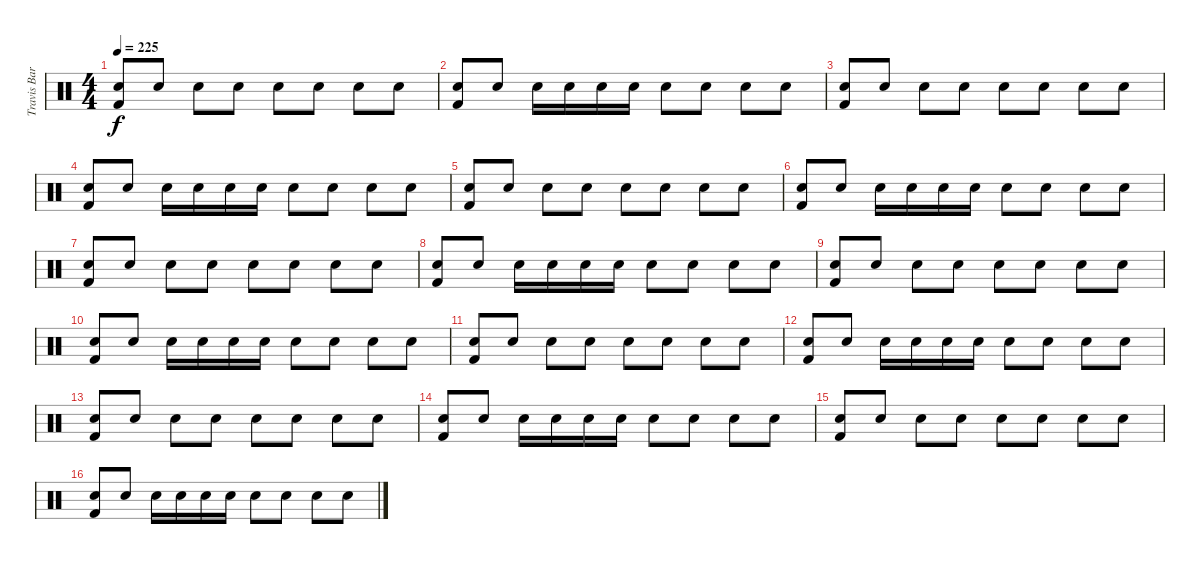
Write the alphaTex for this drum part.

\track ("Travis Barker (Drums)" "Travis Bar") {instrument percussion}
\staff {score}
\articulation defaults
\ts (4 4)
\tempo 225
\clef neutral
\ks c
("Snare (hit) 2" "Kick (hit) 2").8{dy f} "Snare (hit) 2".8 "Snare (hit) 2".8 "Electric Snare (hit)".8 "Snare (hit) 2".8 "Snare (hit) 2".8 "Electric Snare (hit)".8 "Snare (hit) 2".8 |
("Snare (hit) 2" "Kick (hit) 2").8 "Snare (hit) 2".8 "Snare (hit) 2".16 "Snare (hit) 2".16 "Snare (hit) 2".16 "Snare (hit) 2".16 "Electric Snare (hit)".8 "Electric Snare (hit)".8 "Snare (hit) 2".8 "Snare (hit) 2".8 |
("Snare (hit) 2" "Kick (hit) 2").8 "Snare (hit) 2".8 "Snare (hit) 2".8 "Electric Snare (hit)".8 "Snare (hit) 2".8 "Snare (hit) 2".8 "Electric Snare (hit)".8 "Snare (hit) 2".8 |
("Snare (hit) 2" "Kick (hit) 2").8 "Snare (hit) 2".8 "Snare (hit) 2".16 "Snare (hit) 2".16 "Snare (hit) 2".16 "Snare (hit) 2".16 "Electric Snare (hit)".8 "Electric Snare (hit)".8 "Snare (hit) 2".8 "Snare (hit) 2".8 |
("Snare (hit) 2" "Kick (hit) 2").8 "Snare (hit) 2".8 "Snare (hit) 2".8 "Electric Snare (hit)".8 "Snare (hit) 2".8 "Snare (hit) 2".8 "Electric Snare (hit)".8 "Snare (hit) 2".8 |
("Snare (hit) 2" "Kick (hit) 2").8 "Snare (hit) 2".8 "Snare (hit) 2".16 "Snare (hit) 2".16 "Snare (hit) 2".16 "Snare (hit) 2".16 "Electric Snare (hit)".8 "Electric Snare (hit)".8 "Snare (hit) 2".8 "Snare (hit) 2".8 |
("Snare (hit) 2" "Kick (hit) 2").8 "Snare (hit) 2".8 "Snare (hit) 2".8 "Electric Snare (hit)".8 "Snare (hit) 2".8 "Snare (hit) 2".8 "Electric Snare (hit)".8 "Snare (hit) 2".8 |
("Snare (hit) 2" "Kick (hit) 2").8 "Snare (hit) 2".8 "Snare (hit) 2".16 "Snare (hit) 2".16 "Snare (hit) 2".16 "Snare (hit) 2".16 "Electric Snare (hit)".8 "Electric Snare (hit)".8 "Snare (hit) 2".8 "Snare (hit) 2".8 |
("Snare (hit) 2" "Kick (hit) 2").8 "Snare (hit) 2".8 "Snare (hit) 2".8 "Electric Snare (hit)".8 "Snare (hit) 2".8 "Snare (hit) 2".8 "Electric Snare (hit)".8 "Snare (hit) 2".8 |
("Snare (hit) 2" "Kick (hit) 2").8 "Snare (hit) 2".8 "Snare (hit) 2".16 "Snare (hit) 2".16 "Snare (hit) 2".16 "Snare (hit) 2".16 "Electric Snare (hit)".8 "Electric Snare (hit)".8 "Snare (hit) 2".8 "Snare (hit) 2".8 |
("Snare (hit) 2" "Kick (hit) 2").8 "Snare (hit) 2".8 "Snare (hit) 2".8 "Electric Snare (hit)".8 "Snare (hit) 2".8 "Snare (hit) 2".8 "Electric Snare (hit)".8 "Snare (hit) 2".8 |
("Snare (hit) 2" "Kick (hit) 2").8 "Snare (hit) 2".8 "Snare (hit) 2".16 "Snare (hit) 2".16 "Snare (hit) 2".16 "Snare (hit) 2".16 "Electric Snare (hit)".8 "Electric Snare (hit)".8 "Snare (hit) 2".8 "Snare (hit) 2".8 |
("Snare (hit) 2" "Kick (hit) 2").8 "Snare (hit) 2".8 "Snare (hit) 2".8 "Electric Snare (hit)".8 "Snare (hit) 2".8 "Snare (hit) 2".8 "Electric Snare (hit)".8 "Snare (hit) 2".8 |
("Snare (hit) 2" "Kick (hit) 2").8 "Snare (hit) 2".8 "Snare (hit) 2".16 "Snare (hit) 2".16 "Snare (hit) 2".16 "Snare (hit) 2".16 "Electric Snare (hit)".8 "Electric Snare (hit)".8 "Snare (hit) 2".8 "Snare (hit) 2".8 |
("Snare (hit) 2" "Kick (hit) 2").8 "Snare (hit) 2".8 "Snare (hit) 2".8 "Electric Snare (hit)".8 "Snare (hit) 2".8 "Snare (hit) 2".8 "Electric Snare (hit)".8 "Snare (hit) 2".8 |
("Snare (hit) 2" "Kick (hit) 2").8 "Snare (hit) 2".8 "Snare (hit) 2".16 "Snare (hit) 2".16 "Snare (hit) 2".16 "Snare (hit) 2".16 "Electric Snare (hit)".8 "Electric Snare (hit)".8 "Snare (hit) 2".8 "Snare (hit) 2".8
